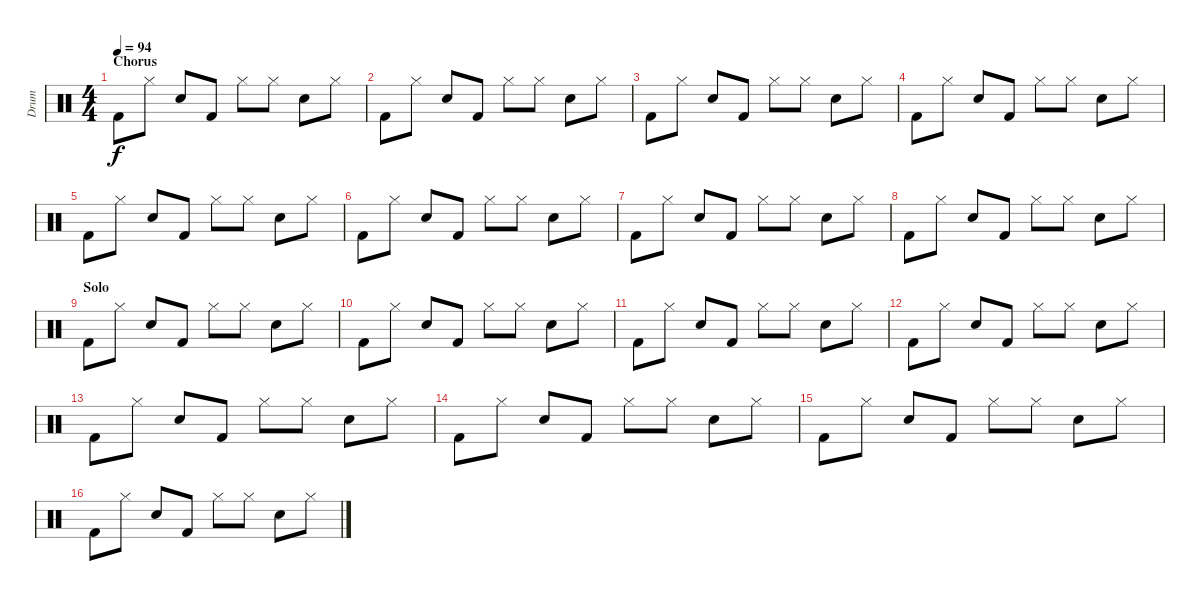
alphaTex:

\track ("Drum" "Drum") {instrument percussion}
\staff {score}
\articulation defaults
\ts (4 4)
\section ("" "Chorus")
\tempo 94
\clef neutral
\ks c "Kick (hit) 2".8{dy f} "Hi-Hat (closed)".8 "Electric Snare (hit)".8 "Kick (hit) 2".8 "Hi-Hat (closed)".8 "Hi-Hat (closed)".8 "Electric Snare (hit)".8 "Hi-Hat (closed)".8
|
"Kick (hit) 2".8 "Hi-Hat (closed)".8 "Electric Snare (hit)".8 "Kick (hit) 2".8 "Hi-Hat (closed)".8 "Hi-Hat (closed)".8 "Electric Snare (hit)".8 "Hi-Hat (closed)".8 |
"Kick (hit) 2".8 "Hi-Hat (closed)".8 "Electric Snare (hit)".8 "Kick (hit) 2".8 "Hi-Hat (closed)".8 "Hi-Hat (closed)".8 "Electric Snare (hit)".8 "Hi-Hat (closed)".8 |
"Kick (hit) 2".8 "Hi-Hat (closed)".8 "Electric Snare (hit)".8 "Kick (hit) 2".8 "Hi-Hat (closed)".8 "Hi-Hat (closed)".8 "Electric Snare (hit)".8 "Hi-Hat (closed)".8 |
"Kick (hit) 2".8 "Hi-Hat (closed)".8 "Electric Snare (hit)".8 "Kick (hit) 2".8 "Hi-Hat (closed)".8 "Hi-Hat (closed)".8 "Electric Snare (hit)".8 "Hi-Hat (closed)".8 |
"Kick (hit) 2".8 "Hi-Hat (closed)".8 "Electric Snare (hit)".8 "Kick (hit) 2".8 "Hi-Hat (closed)".8 "Hi-Hat (closed)".8 "Electric Snare (hit)".8 "Hi-Hat (closed)".8 |
"Kick (hit) 2".8 "Hi-Hat (closed)".8 "Electric Snare (hit)".8 "Kick (hit) 2".8 "Hi-Hat (closed)".8 "Hi-Hat (closed)".8 "Electric Snare (hit)".8 "Hi-Hat (closed)".8 |
"Kick (hit) 2".8 "Hi-Hat (closed)".8 "Electric Snare (hit)".8 "Kick (hit) 2".8 "Hi-Hat (closed)".8 "Hi-Hat (closed)".8 "Electric Snare (hit)".8 "Hi-Hat (closed)".8 |
\section ("" "Solo")
"Kick (hit) 2".8 "Hi-Hat (closed)".8 "Electric Snare (hit)".8 "Kick (hit) 2".8 "Hi-Hat (closed)".8 "Hi-Hat (closed)".8 "Electric Snare (hit)".8 "Hi-Hat (closed)".8 |
"Kick (hit) 2".8 "Hi-Hat (closed)".8 "Electric Snare (hit)".8 "Kick (hit) 2".8 "Hi-Hat (closed)".8 "Hi-Hat (closed)".8 "Electric Snare (hit)".8 "Hi-Hat (closed)".8 |
"Kick (hit) 2".8 "Hi-Hat (closed)".8 "Electric Snare (hit)".8 "Kick (hit) 2".8 "Hi-Hat (closed)".8 "Hi-Hat (closed)".8 "Electric Snare (hit)".8 "Hi-Hat (closed)".8 |
"Kick (hit) 2".8 "Hi-Hat (closed)".8 "Electric Snare (hit)".8 "Kick (hit) 2".8 "Hi-Hat (closed)".8 "Hi-Hat (closed)".8 "Electric Snare (hit)".8 "Hi-Hat (closed)".8 |
"Kick (hit) 2".8 "Hi-Hat (closed)".8 "Electric Snare (hit)".8 "Kick (hit) 2".8 "Hi-Hat (closed)".8 "Hi-Hat (closed)".8 "Electric Snare (hit)".8 "Hi-Hat (closed)".8 |
"Kick (hit) 2".8 "Hi-Hat (closed)".8 "Electric Snare (hit)".8 "Kick (hit) 2".8 "Hi-Hat (closed)".8 "Hi-Hat (closed)".8 "Electric Snare (hit)".8 "Hi-Hat (closed)".8 |
"Kick (hit) 2".8 "Hi-Hat (closed)".8 "Electric Snare (hit)".8 "Kick (hit) 2".8 "Hi-Hat (closed)".8 "Hi-Hat (closed)".8 "Electric Snare (hit)".8 "Hi-Hat (closed)".8 |
"Kick (hit) 2".8 "Hi-Hat (closed)".8 "Electric Snare (hit)".8 "Kick (hit) 2".8 "Hi-Hat (closed)".8 "Hi-Hat (closed)".8 "Electric Snare (hit)".8 "Hi-Hat (closed)".8
